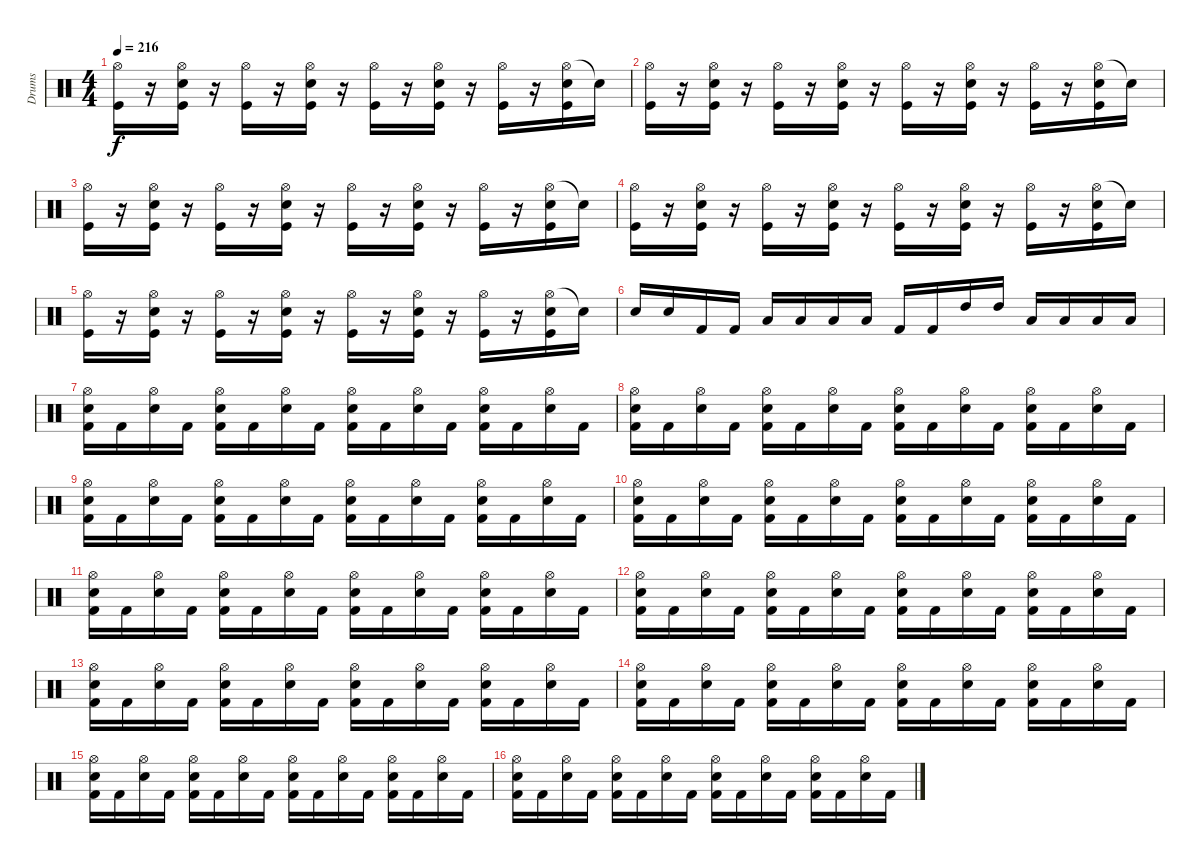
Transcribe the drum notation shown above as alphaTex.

\track ("Drums" "Drums") {instrument percussion}
\staff {score}
\articulation defaults
\ts (4 4)
\tempo 216
\clef neutral
\ks c
("Hi-Hat (open)" "Kick (hit)").16{dy f} r.16 ("Hi-Hat (open)" "Snare (hit) 2" "Kick (hit)").16 r.16 ("Hi-Hat (open)" "Kick (hit)").16 r.16 ("Hi-Hat (open)" "Snare (hit) 2" "Kick (hit)").16 r.16 ("Hi-Hat (open)" "Kick (hit)").16 r.16 ("Hi-Hat (open)" "Snare (hit) 2" "Kick (hit)").16 r.16 ("Hi-Hat (open)" "Kick (hit)").16 r.16 ("Hi-Hat (open)" "Snare (hit) 2" "Kick (hit)").16 "Snare (hit)"{t}.16 |
("Hi-Hat (open)" "Kick (hit)").16 r.16 ("Hi-Hat (open)" "Snare (hit) 2" "Kick (hit)").16 r.16 ("Hi-Hat (open)" "Kick (hit)").16 r.16 ("Hi-Hat (open)" "Snare (hit) 2" "Kick (hit)").16 r.16 ("Hi-Hat (open)" "Kick (hit)").16 r.16 ("Hi-Hat (open)" "Snare (hit) 2" "Kick (hit)").16 r.16 ("Hi-Hat (open)" "Kick (hit)").16 r.16 ("Hi-Hat (open)" "Snare (hit) 2" "Kick (hit)").16 "Snare (hit)"{t}.16 |
("Hi-Hat (open)" "Kick (hit)").16 r.16 ("Hi-Hat (open)" "Snare (hit) 2" "Kick (hit)").16 r.16 ("Hi-Hat (open)" "Kick (hit)").16 r.16 ("Hi-Hat (open)" "Snare (hit) 2" "Kick (hit)").16 r.16 ("Hi-Hat (open)" "Kick (hit)").16 r.16 ("Hi-Hat (open)" "Snare (hit) 2" "Kick (hit)").16 r.16 ("Hi-Hat (open)" "Kick (hit)").16 r.16 ("Hi-Hat (open)" "Snare (hit) 2" "Kick (hit)").16 "Snare (hit)"{t}.16 |
("Hi-Hat (open)" "Kick (hit)").16 r.16 ("Hi-Hat (open)" "Snare (hit) 2" "Kick (hit)").16 r.16 ("Hi-Hat (open)" "Kick (hit)").16 r.16 ("Hi-Hat (open)" "Snare (hit) 2" "Kick (hit)").16 r.16 ("Hi-Hat (open)" "Kick (hit)").16 r.16 ("Hi-Hat (open)" "Snare (hit) 2" "Kick (hit)").16 r.16 ("Hi-Hat (open)" "Kick (hit)").16 r.16 ("Hi-Hat (open)" "Snare (hit) 2" "Kick (hit)").16 "Snare (hit)"{t}.16 |
("Hi-Hat (open)" "Kick (hit)").16 r.16 ("Hi-Hat (open)" "Snare (hit) 2" "Kick (hit)").16 r.16 ("Hi-Hat (open)" "Kick (hit)").16 r.16 ("Hi-Hat (open)" "Snare (hit) 2" "Kick (hit)").16 r.16 ("Hi-Hat (open)" "Kick (hit)").16 r.16 ("Hi-Hat (open)" "Snare (hit) 2" "Kick (hit)").16 r.16 ("Hi-Hat (open)" "Kick (hit)").16 r.16 ("Hi-Hat (open)" "Snare (hit) 2" "Kick (hit)").16 "Snare (hit)"{t}.16 |
"Snare (hit) 2".16 "Snare (hit) 2".16 "Kick (hit) 2".16 "Kick (hit) 2".16 "Low Tom (hit)".16 "Low Tom (hit)".16 "Low Tom (hit)".16 "Low Tom (hit)".16 "Kick (hit) 2".16 "Kick (hit) 2".16 "High Tom (hit)".16 "High Tom (hit)".16 "Low Floor Tom (hit)".16 "Low Floor Tom (hit)".16 "Low Floor Tom (hit)".16 "Low Floor Tom (hit)".16 |
("Hi-Hat (open)" "Snare (hit) 2" "Kick (hit) 2").16 "Kick (hit) 2".16 ("Hi-Hat (open)" "Snare (hit) 2").16 "Kick (hit) 2".16 ("Hi-Hat (open)" "Snare (hit) 2" "Kick (hit) 2").16 "Kick (hit) 2".16 ("Hi-Hat (open)" "Snare (hit) 2").16 "Kick (hit) 2".16 ("Hi-Hat (open)" "Snare (hit) 2" "Kick (hit) 2").16 "Kick (hit) 2".16 ("Hi-Hat (open)" "Snare (hit) 2").16 "Kick (hit) 2".16 ("Hi-Hat (open)" "Snare (hit) 2" "Kick (hit) 2").16 "Kick (hit) 2".16 ("Hi-Hat (open)" "Snare (hit) 2").16 "Kick (hit) 2".16 |
("Hi-Hat (open)" "Snare (hit) 2" "Kick (hit) 2").16 "Kick (hit) 2".16 ("Hi-Hat (open)" "Snare (hit) 2").16 "Kick (hit) 2".16 ("Hi-Hat (open)" "Snare (hit) 2" "Kick (hit) 2").16 "Kick (hit) 2".16 ("Hi-Hat (open)" "Snare (hit) 2").16 "Kick (hit) 2".16 ("Hi-Hat (open)" "Snare (hit) 2" "Kick (hit) 2").16 "Kick (hit) 2".16 ("Hi-Hat (open)" "Snare (hit) 2").16 "Kick (hit) 2".16 ("Hi-Hat (open)" "Snare (hit) 2" "Kick (hit) 2").16 "Kick (hit) 2".16 ("Hi-Hat (open)" "Snare (hit) 2").16 "Kick (hit) 2".16 |
("Hi-Hat (open)" "Snare (hit) 2" "Kick (hit) 2").16 "Kick (hit) 2".16 ("Hi-Hat (open)" "Snare (hit) 2").16 "Kick (hit) 2".16 ("Hi-Hat (open)" "Snare (hit) 2" "Kick (hit) 2").16 "Kick (hit) 2".16 ("Hi-Hat (open)" "Snare (hit) 2").16 "Kick (hit) 2".16 ("Hi-Hat (open)" "Snare (hit) 2" "Kick (hit) 2").16 "Kick (hit) 2".16 ("Hi-Hat (open)" "Snare (hit) 2").16 "Kick (hit) 2".16 ("Hi-Hat (open)" "Snare (hit) 2" "Kick (hit) 2").16 "Kick (hit) 2".16 ("Hi-Hat (open)" "Snare (hit) 2").16 "Kick (hit) 2".16 |
("Hi-Hat (open)" "Snare (hit) 2" "Kick (hit) 2").16 "Kick (hit) 2".16 ("Hi-Hat (open)" "Snare (hit) 2").16 "Kick (hit) 2".16 ("Hi-Hat (open)" "Snare (hit) 2" "Kick (hit) 2").16 "Kick (hit) 2".16 ("Hi-Hat (open)" "Snare (hit) 2").16 "Kick (hit) 2".16 ("Hi-Hat (open)" "Snare (hit) 2" "Kick (hit) 2").16 "Kick (hit) 2".16 ("Hi-Hat (open)" "Snare (hit) 2").16 "Kick (hit) 2".16 ("Hi-Hat (open)" "Snare (hit) 2" "Kick (hit) 2").16 "Kick (hit) 2".16 ("Hi-Hat (open)" "Snare (hit) 2").16 "Kick (hit) 2".16 |
("Hi-Hat (open)" "Snare (hit) 2" "Kick (hit) 2").16 "Kick (hit) 2".16 ("Hi-Hat (open)" "Snare (hit) 2").16 "Kick (hit) 2".16 ("Hi-Hat (open)" "Snare (hit) 2" "Kick (hit) 2").16 "Kick (hit) 2".16 ("Hi-Hat (open)" "Snare (hit) 2").16 "Kick (hit) 2".16 ("Hi-Hat (open)" "Snare (hit) 2" "Kick (hit) 2").16 "Kick (hit) 2".16 ("Hi-Hat (open)" "Snare (hit) 2").16 "Kick (hit) 2".16 ("Hi-Hat (open)" "Snare (hit) 2" "Kick (hit) 2").16 "Kick (hit) 2".16 ("Hi-Hat (open)" "Snare (hit) 2").16 "Kick (hit) 2".16 |
("Hi-Hat (open)" "Snare (hit) 2" "Kick (hit) 2").16 "Kick (hit) 2".16 ("Hi-Hat (open)" "Snare (hit) 2").16 "Kick (hit) 2".16 ("Hi-Hat (open)" "Snare (hit) 2" "Kick (hit) 2").16 "Kick (hit) 2".16 ("Hi-Hat (open)" "Snare (hit) 2").16 "Kick (hit) 2".16 ("Hi-Hat (open)" "Snare (hit) 2" "Kick (hit) 2").16 "Kick (hit) 2".16 ("Hi-Hat (open)" "Snare (hit) 2").16 "Kick (hit) 2".16 ("Hi-Hat (open)" "Snare (hit) 2" "Kick (hit) 2").16 "Kick (hit) 2".16 ("Hi-Hat (open)" "Snare (hit) 2").16 "Kick (hit) 2".16 |
("Hi-Hat (open)" "Snare (hit) 2" "Kick (hit) 2").16 "Kick (hit) 2".16 ("Hi-Hat (open)" "Snare (hit) 2").16 "Kick (hit) 2".16 ("Hi-Hat (open)" "Snare (hit) 2" "Kick (hit) 2").16 "Kick (hit) 2".16 ("Hi-Hat (open)" "Snare (hit) 2").16 "Kick (hit) 2".16 ("Hi-Hat (open)" "Snare (hit) 2" "Kick (hit) 2").16 "Kick (hit) 2".16 ("Hi-Hat (open)" "Snare (hit) 2").16 "Kick (hit) 2".16 ("Hi-Hat (open)" "Snare (hit) 2" "Kick (hit) 2").16 "Kick (hit) 2".16 ("Hi-Hat (open)" "Snare (hit) 2").16 "Kick (hit) 2".16 |
("Hi-Hat (open)" "Snare (hit) 2" "Kick (hit) 2").16 "Kick (hit) 2".16 ("Hi-Hat (open)" "Snare (hit) 2").16 "Kick (hit) 2".16 ("Hi-Hat (open)" "Snare (hit) 2" "Kick (hit) 2").16 "Kick (hit) 2".16 ("Hi-Hat (open)" "Snare (hit) 2").16 "Kick (hit) 2".16 ("Hi-Hat (open)" "Snare (hit) 2" "Kick (hit) 2").16 "Kick (hit) 2".16 ("Hi-Hat (open)" "Snare (hit) 2").16 "Kick (hit) 2".16 ("Hi-Hat (open)" "Snare (hit) 2" "Kick (hit) 2").16 "Kick (hit) 2".16 ("Hi-Hat (open)" "Snare (hit) 2").16 "Kick (hit) 2".16 |
("Hi-Hat (open)" "Snare (hit) 2" "Kick (hit) 2").16 "Kick (hit) 2".16 ("Hi-Hat (open)" "Snare (hit) 2").16 "Kick (hit) 2".16 ("Hi-Hat (open)" "Snare (hit) 2" "Kick (hit) 2").16 "Kick (hit) 2".16 ("Hi-Hat (open)" "Snare (hit) 2").16 "Kick (hit) 2".16 ("Hi-Hat (open)" "Snare (hit) 2" "Kick (hit) 2").16 "Kick (hit) 2".16 ("Hi-Hat (open)" "Snare (hit) 2").16 "Kick (hit) 2".16 ("Hi-Hat (open)" "Snare (hit) 2" "Kick (hit) 2").16 "Kick (hit) 2".16 ("Hi-Hat (open)" "Snare (hit) 2").16 "Kick (hit) 2".16 |
("Hi-Hat (open)" "Snare (hit) 2" "Kick (hit) 2").16 "Kick (hit) 2".16 ("Hi-Hat (open)" "Snare (hit) 2").16 "Kick (hit) 2".16 ("Hi-Hat (open)" "Snare (hit) 2" "Kick (hit) 2").16 "Kick (hit) 2".16 ("Hi-Hat (open)" "Snare (hit) 2").16 "Kick (hit) 2".16 ("Hi-Hat (open)" "Snare (hit) 2" "Kick (hit) 2").16 "Kick (hit) 2".16 ("Hi-Hat (open)" "Snare (hit) 2").16 "Kick (hit) 2".16 ("Hi-Hat (open)" "Snare (hit) 2" "Kick (hit) 2").16 "Kick (hit) 2".16 ("Hi-Hat (open)" "Snare (hit) 2").16 "Kick (hit) 2".16
